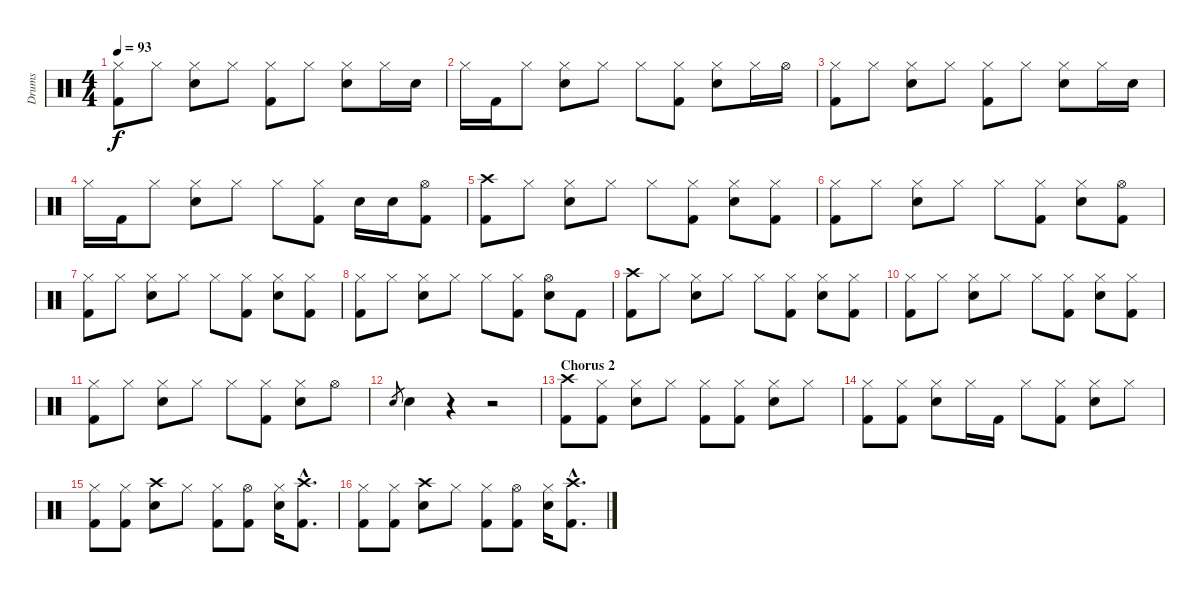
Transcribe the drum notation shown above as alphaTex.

\track ("Drums" "Drums") {instrument percussion}
\staff {score}
\articulation defaults
\ts (4 4)
\tempo 93
\clef neutral
\ks c
("Hi-Hat (closed)" "Kick (hit) 2").8{dy f} "Hi-Hat (closed)".8 ("Hi-Hat (closed)" "Electric Snare (hit)").8 "Hi-Hat (closed)".8 ("Hi-Hat (closed)" "Kick (hit) 2").8 "Hi-Hat (closed)".8 ("Hi-Hat (closed)" "Electric Snare (hit)").8 "Hi-Hat (closed)".16 "Electric Snare (hit)".16 |
"Hi-Hat (closed)".16 "Kick (hit) 2".16 "Hi-Hat (closed)".8 ("Hi-Hat (closed)" "Electric Snare (hit)").8 "Hi-Hat (closed)".8 "Hi-Hat (closed)".8 ("Hi-Hat (closed)" "Kick (hit) 2").8 ("Hi-Hat (closed)" "Electric Snare (hit)").8 "Hi-Hat (closed)".16 "Hi-Hat (open)".16 |
("Hi-Hat (closed)" "Kick (hit) 2").8 "Hi-Hat (closed)".8 ("Hi-Hat (closed)" "Electric Snare (hit)").8 "Hi-Hat (closed)".8 ("Hi-Hat (closed)" "Kick (hit) 2").8 "Hi-Hat (closed)".8 ("Hi-Hat (closed)" "Electric Snare (hit)").8 "Hi-Hat (closed)".16 "Electric Snare (hit)".16 |
"Hi-Hat (closed)".16 "Kick (hit) 2".16 "Hi-Hat (closed)".8 ("Hi-Hat (closed)" "Electric Snare (hit)").8 "Hi-Hat (closed)".8 "Hi-Hat (closed)".8 ("Hi-Hat (closed)" "Kick (hit) 2").8 "Electric Snare (hit)".16 "Electric Snare (hit)".16 ("Hi-Hat (open)" "Kick (hit) 2").8 |
("Crash high (hit)" "Kick (hit) 2").8 "Hi-Hat (closed)".8 ("Hi-Hat (closed)" "Electric Snare (hit)").8 "Hi-Hat (closed)".8 "Hi-Hat (closed)".8 ("Hi-Hat (closed)" "Kick (hit) 2").8 ("Hi-Hat (closed)" "Electric Snare (hit)").8 ("Hi-Hat (closed)" "Kick (hit) 2").8 |
("Hi-Hat (closed)" "Kick (hit) 2").8 "Hi-Hat (closed)".8 ("Hi-Hat (closed)" "Electric Snare (hit)").8 "Hi-Hat (closed)".8 "Hi-Hat (closed)".8 ("Hi-Hat (closed)" "Kick (hit) 2").8 ("Hi-Hat (closed)" "Electric Snare (hit)").8 ("Hi-Hat (open)" "Kick (hit) 2").8 |
("Hi-Hat (closed)" "Kick (hit) 2").8 "Hi-Hat (closed)".8 ("Hi-Hat (closed)" "Electric Snare (hit)").8 "Hi-Hat (closed)".8 "Hi-Hat (closed)".8 ("Hi-Hat (closed)" "Kick (hit) 2").8 ("Hi-Hat (closed)" "Electric Snare (hit)").8 ("Hi-Hat (closed)" "Kick (hit) 2").8 |
("Hi-Hat (closed)" "Kick (hit) 2").8 "Hi-Hat (closed)".8 ("Hi-Hat (closed)" "Electric Snare (hit)").8 "Hi-Hat (closed)".8 "Hi-Hat (closed)".8 ("Hi-Hat (closed)" "Kick (hit) 2").8 ("Hi-Hat (open)" "Electric Snare (hit)").8 "Kick (hit) 2".8 |
("Crash high (hit)" "Kick (hit) 2").8 "Hi-Hat (closed)".8 ("Hi-Hat (closed)" "Electric Snare (hit)").8 "Hi-Hat (closed)".8 "Hi-Hat (closed)".8 ("Hi-Hat (closed)" "Kick (hit) 2").8 ("Hi-Hat (closed)" "Electric Snare (hit)").8 ("Hi-Hat (closed)" "Kick (hit) 2").8 |
("Hi-Hat (closed)" "Kick (hit) 2").8 "Hi-Hat (closed)".8 ("Hi-Hat (closed)" "Electric Snare (hit)").8 "Hi-Hat (closed)".8 "Hi-Hat (closed)".8 ("Hi-Hat (closed)" "Kick (hit) 2").8 ("Hi-Hat (closed)" "Electric Snare (hit)").8 ("Hi-Hat (closed)" "Kick (hit) 2").8 |
("Hi-Hat (closed)" "Kick (hit) 2").8 "Hi-Hat (closed)".8 ("Hi-Hat (closed)" "Electric Snare (hit)").8 "Hi-Hat (closed)".8 "Hi-Hat (closed)".8 ("Hi-Hat (closed)" "Kick (hit) 2").8 ("Hi-Hat (closed)" "Electric Snare (hit)").8 "Hi-Hat (open)".8 |
"Electric Snare (hit)".8{gr} "Electric Snare (hit)".4 r.4 r.2 |
\section ("" "Chorus 2")
("Crash high (hit)" "Kick (hit) 2").8 ("Hi-Hat (closed)" "Kick (hit) 2").8 ("Hi-Hat (closed)" "Electric Snare (hit)").8 "Hi-Hat (closed)".8 ("Hi-Hat (closed)" "Kick (hit) 2").8 ("Hi-Hat (closed)" "Kick (hit) 2").8 ("Hi-Hat (closed)" "Electric Snare (hit)").8 "Hi-Hat (closed)".8 |
("Hi-Hat (closed)" "Kick (hit) 2").8 ("Hi-Hat (closed)" "Kick (hit) 2").8 ("Hi-Hat (closed)" "Electric Snare (hit)").8 "Hi-Hat (closed)".16 "Kick (hit) 2".16 "Hi-Hat (closed)".8 ("Hi-Hat (closed)" "Kick (hit) 2").8 ("Hi-Hat (closed)" "Electric Snare (hit)").8 "Hi-Hat (closed)".8 |
("Hi-Hat (closed)" "Kick (hit) 2").8 ("Hi-Hat (closed)" "Kick (hit) 2").8 ("Crash high (hit)" "Electric Snare (hit)").8 "Hi-Hat (closed)".8 ("Hi-Hat (closed)" "Kick (hit) 2").8 ("Hi-Hat (open)" "Kick (hit) 2").8 ("Hi-Hat (closed)" "Electric Snare (hit)").16 ("Crash high (hit)"{hac} "Kick (hit) 2"{hac}).8{d} |
("Hi-Hat (closed)" "Kick (hit) 2").8 ("Hi-Hat (closed)" "Kick (hit) 2").8 ("Crash high (hit)" "Electric Snare (hit)").8 "Hi-Hat (closed)".8 ("Hi-Hat (closed)" "Kick (hit) 2").8 ("Hi-Hat (open)" "Kick (hit) 2").8 ("Hi-Hat (closed)" "Electric Snare (hit)").16 ("Crash high (hit)"{hac} "Kick (hit) 2"{hac}).8{d}
